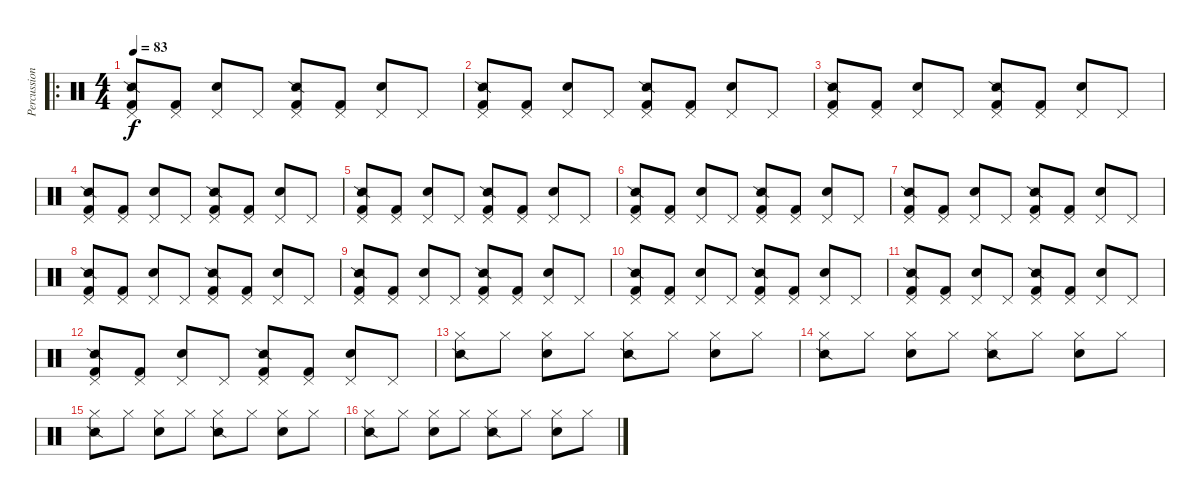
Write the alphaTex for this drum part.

\track ("Percussion" "Percussion") {instrument percussion}
\staff {score}
\articulation defaults
\ro
\ts (4 4)
\tempo 83
\clef neutral
\ks c
("Snare (side stick) 2" "Kick (hit) 2" "Pedal Hi-Hat (hit)").8{dy f} ("Kick (hit) 2" "Pedal Hi-Hat (hit)").8 ("Electric Snare (hit)" "Pedal Hi-Hat (hit)").8 "Pedal Hi-Hat (hit)".8 ("Snare (side stick) 2" "Kick (hit) 2" "Pedal Hi-Hat (hit)").8 ("Kick (hit) 2" "Pedal Hi-Hat (hit)").8 ("Electric Snare (hit)" "Pedal Hi-Hat (hit)").8 "Pedal Hi-Hat (hit)".8 |
("Snare (side stick) 2" "Kick (hit) 2" "Pedal Hi-Hat (hit)").8 ("Kick (hit) 2" "Pedal Hi-Hat (hit)").8 ("Electric Snare (hit)" "Pedal Hi-Hat (hit)").8 "Pedal Hi-Hat (hit)".8 ("Snare (side stick) 2" "Kick (hit) 2" "Pedal Hi-Hat (hit)").8 ("Kick (hit) 2" "Pedal Hi-Hat (hit)").8 ("Electric Snare (hit)" "Pedal Hi-Hat (hit)").8 "Pedal Hi-Hat (hit)".8 |
("Snare (side stick) 2" "Kick (hit) 2" "Pedal Hi-Hat (hit)").8 ("Kick (hit) 2" "Pedal Hi-Hat (hit)").8 ("Electric Snare (hit)" "Pedal Hi-Hat (hit)").8 "Pedal Hi-Hat (hit)".8 ("Snare (side stick) 2" "Kick (hit) 2" "Pedal Hi-Hat (hit)").8 ("Kick (hit) 2" "Pedal Hi-Hat (hit)").8 ("Electric Snare (hit)" "Pedal Hi-Hat (hit)").8 "Pedal Hi-Hat (hit)".8 |
("Snare (side stick) 2" "Kick (hit) 2" "Pedal Hi-Hat (hit)").8 ("Kick (hit) 2" "Pedal Hi-Hat (hit)").8 ("Electric Snare (hit)" "Pedal Hi-Hat (hit)").8 "Pedal Hi-Hat (hit)".8 ("Snare (side stick) 2" "Kick (hit) 2" "Pedal Hi-Hat (hit)").8 ("Kick (hit) 2" "Pedal Hi-Hat (hit)").8 ("Electric Snare (hit)" "Pedal Hi-Hat (hit)").8 "Pedal Hi-Hat (hit)".8 |
("Snare (side stick) 2" "Kick (hit) 2" "Pedal Hi-Hat (hit)").8 ("Kick (hit) 2" "Pedal Hi-Hat (hit)").8 ("Electric Snare (hit)" "Pedal Hi-Hat (hit)").8 "Pedal Hi-Hat (hit)".8 ("Snare (side stick) 2" "Kick (hit) 2" "Pedal Hi-Hat (hit)").8 ("Kick (hit) 2" "Pedal Hi-Hat (hit)").8 ("Electric Snare (hit)" "Pedal Hi-Hat (hit)").8 "Pedal Hi-Hat (hit)".8 |
("Snare (side stick) 2" "Kick (hit) 2" "Pedal Hi-Hat (hit)").8 ("Kick (hit) 2" "Pedal Hi-Hat (hit)").8 ("Electric Snare (hit)" "Pedal Hi-Hat (hit)").8 "Pedal Hi-Hat (hit)".8 ("Snare (side stick) 2" "Kick (hit) 2" "Pedal Hi-Hat (hit)").8 ("Kick (hit) 2" "Pedal Hi-Hat (hit)").8 ("Electric Snare (hit)" "Pedal Hi-Hat (hit)").8 "Pedal Hi-Hat (hit)".8 |
("Snare (side stick) 2" "Kick (hit) 2" "Pedal Hi-Hat (hit)").8 ("Kick (hit) 2" "Pedal Hi-Hat (hit)").8 ("Electric Snare (hit)" "Pedal Hi-Hat (hit)").8 "Pedal Hi-Hat (hit)".8 ("Snare (side stick) 2" "Kick (hit) 2" "Pedal Hi-Hat (hit)").8 ("Kick (hit) 2" "Pedal Hi-Hat (hit)").8 ("Electric Snare (hit)" "Pedal Hi-Hat (hit)").8 "Pedal Hi-Hat (hit)".8 |
("Snare (side stick) 2" "Kick (hit) 2" "Pedal Hi-Hat (hit)").8 ("Kick (hit) 2" "Pedal Hi-Hat (hit)").8 ("Electric Snare (hit)" "Pedal Hi-Hat (hit)").8 "Pedal Hi-Hat (hit)".8 ("Snare (side stick) 2" "Kick (hit) 2" "Pedal Hi-Hat (hit)").8 ("Kick (hit) 2" "Pedal Hi-Hat (hit)").8 ("Electric Snare (hit)" "Pedal Hi-Hat (hit)").8 "Pedal Hi-Hat (hit)".8 |
("Snare (side stick) 2" "Kick (hit) 2" "Pedal Hi-Hat (hit)").8 ("Kick (hit) 2" "Pedal Hi-Hat (hit)").8 ("Electric Snare (hit)" "Pedal Hi-Hat (hit)").8 "Pedal Hi-Hat (hit)".8 ("Snare (side stick) 2" "Kick (hit) 2" "Pedal Hi-Hat (hit)").8 ("Kick (hit) 2" "Pedal Hi-Hat (hit)").8 ("Electric Snare (hit)" "Pedal Hi-Hat (hit)").8 "Pedal Hi-Hat (hit)".8 |
("Snare (side stick) 2" "Kick (hit) 2" "Pedal Hi-Hat (hit)").8 ("Kick (hit) 2" "Pedal Hi-Hat (hit)").8 ("Electric Snare (hit)" "Pedal Hi-Hat (hit)").8 "Pedal Hi-Hat (hit)".8 ("Snare (side stick) 2" "Kick (hit) 2" "Pedal Hi-Hat (hit)").8 ("Kick (hit) 2" "Pedal Hi-Hat (hit)").8 ("Electric Snare (hit)" "Pedal Hi-Hat (hit)").8 "Pedal Hi-Hat (hit)".8 |
("Snare (side stick) 2" "Kick (hit) 2" "Pedal Hi-Hat (hit)").8 ("Kick (hit) 2" "Pedal Hi-Hat (hit)").8 ("Electric Snare (hit)" "Pedal Hi-Hat (hit)").8 "Pedal Hi-Hat (hit)".8 ("Snare (side stick) 2" "Kick (hit) 2" "Pedal Hi-Hat (hit)").8 ("Kick (hit) 2" "Pedal Hi-Hat (hit)").8 ("Electric Snare (hit)" "Pedal Hi-Hat (hit)").8 "Pedal Hi-Hat (hit)".8 |
("Snare (side stick) 2" "Kick (hit) 2" "Pedal Hi-Hat (hit)").8 ("Kick (hit) 2" "Pedal Hi-Hat (hit)").8 ("Electric Snare (hit)" "Pedal Hi-Hat (hit)").8 "Pedal Hi-Hat (hit)".8 ("Snare (side stick) 2" "Kick (hit) 2" "Pedal Hi-Hat (hit)").8 ("Kick (hit) 2" "Pedal Hi-Hat (hit)").8 ("Electric Snare (hit)" "Pedal Hi-Hat (hit)").8 "Pedal Hi-Hat (hit)".8 |
("Snare (side stick) 2" "Hi-Hat (closed)").8 "Hi-Hat (closed)".8 ("Electric Snare (hit)" "Hi-Hat (closed)").8 "Hi-Hat (closed)".8 ("Snare (side stick) 2" "Hi-Hat (closed)").8 "Hi-Hat (closed)".8 ("Electric Snare (hit)" "Hi-Hat (closed)").8 "Hi-Hat (closed)".8 |
("Snare (side stick) 2" "Hi-Hat (closed)").8 "Hi-Hat (closed)".8 ("Electric Snare (hit)" "Hi-Hat (closed)").8 "Hi-Hat (closed)".8 ("Snare (side stick) 2" "Hi-Hat (closed)").8 "Hi-Hat (closed)".8 ("Electric Snare (hit)" "Hi-Hat (closed)").8 "Hi-Hat (closed)".8 |
("Snare (side stick) 2" "Hi-Hat (closed)").8 "Hi-Hat (closed)".8 ("Electric Snare (hit)" "Hi-Hat (closed)").8 "Hi-Hat (closed)".8 ("Snare (side stick) 2" "Hi-Hat (closed)").8 "Hi-Hat (closed)".8 ("Electric Snare (hit)" "Hi-Hat (closed)").8 "Hi-Hat (closed)".8 |
("Snare (side stick) 2" "Hi-Hat (closed)").8 "Hi-Hat (closed)".8 ("Electric Snare (hit)" "Hi-Hat (closed)").8 "Hi-Hat (closed)".8 ("Snare (side stick) 2" "Hi-Hat (closed)").8 "Hi-Hat (closed)".8 ("Electric Snare (hit)" "Hi-Hat (closed)").8 "Hi-Hat (closed)".8
